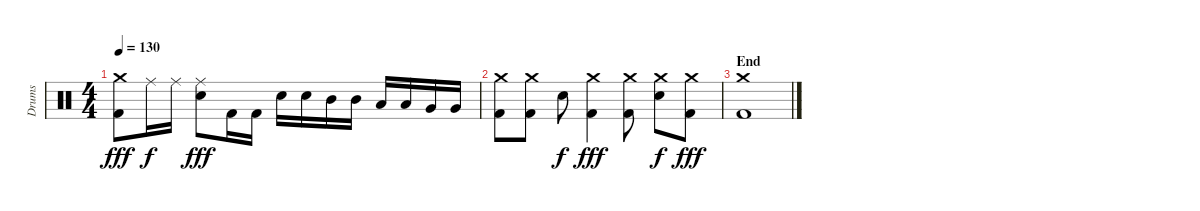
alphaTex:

\track ("Drums" "Drums") {instrument percussion}
\staff {score}
\articulation defaults
\ts (4 4)
\tempo 130
\clef neutral
\ks c
("Crash medium (hit)" "Kick (hit) 2").8{dy fff} "Ride (middle)".16{dy f} "Ride (middle)".16 ("Ride (middle)" "Snare (hit) 2").8{dy fff} "Kick (hit) 2".16 "Kick (hit) 2".16 "Snare (hit) 2".16 "Snare (hit) 2".16 "Mid Tom (hit)".16 "Mid Tom (hit)".16 "Low Tom (hit)".16 "Low Tom (hit)".16 "Very Low Tom (hit)".16 "Very Low Tom (hit)".16 |
("Crash medium (hit)" "Kick (hit) 2").8 ("Crash medium (hit)" "Kick (hit) 2").8 "Snare (hit) 2".8{dy f} ("Crash medium (hit)" "Kick (hit) 2").4{dy fff} ("Crash medium (hit)" "Kick (hit) 2").8 ("Crash medium (hit)" "Snare (hit) 2").8{dy f} ("Crash medium (hit)" "Kick (hit) 2").8{dy fff} |
\section ("" "End")
("Crash medium (hit)" "Kick (hit) 2").1
